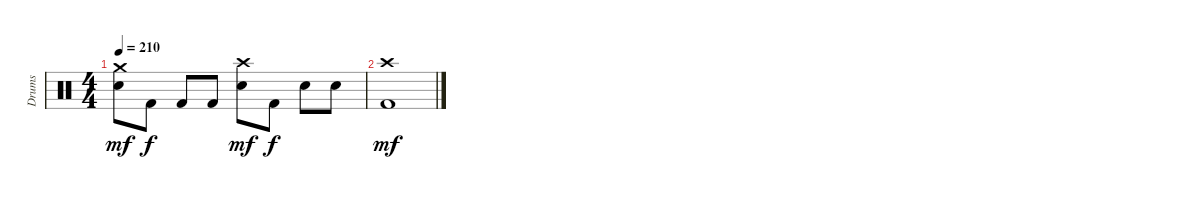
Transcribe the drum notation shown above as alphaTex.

\track ("Drums" "Drums") {instrument percussion}
\staff {score}
\articulation defaults
\ts (4 4)
\tempo 210
\clef neutral
\ks c
("Snare (hit) 2" "Crash medium (hit)").8{dy mf} "Kick (hit) 2".8{dy f} "Kick (hit) 2".8 "Kick (hit) 2".8 ("Snare (hit) 2" "Crash high (hit)").8{dy mf} "Kick (hit) 2".8{dy f} "Snare (hit) 2".8 "Snare (hit) 2".8 |
("Kick (hit) 2" "Crash high (hit)").1{dy mf}
